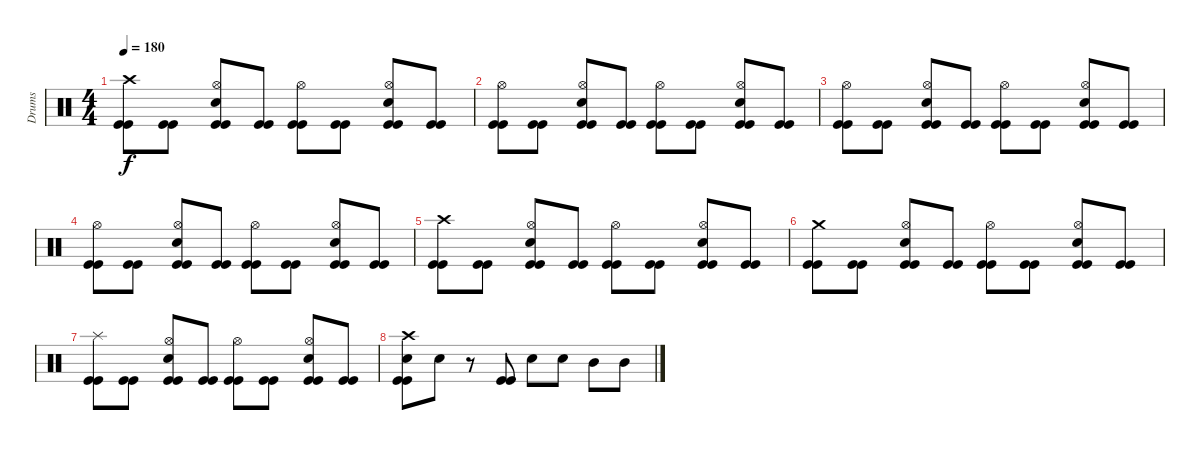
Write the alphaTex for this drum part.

\track ("Drums" "Drums") {instrument percussion}
\staff {score}
\articulation defaults
\ts (4 4)
\tempo 180
\clef neutral
\ks c
("Crash high (hit)" "Kick (hit)" "Kick (hit)").8{dy f volume 7} ("Kick (hit)" "Kick (hit)").8 ("Hi-Hat (open)" "Kick (hit)" "Kick (hit)" "Snare (hit) 2").8 ("Kick (hit)" "Kick (hit)").8 ("Hi-Hat (open)" "Kick (hit)" "Kick (hit)").8 ("Kick (hit)" "Kick (hit)").8 ("Hi-Hat (open)" "Kick (hit)" "Kick (hit)" "Snare (hit) 2").8 ("Kick (hit)" "Kick (hit)").8 |
("Hi-Hat (open)" "Kick (hit)" "Kick (hit)").8 ("Kick (hit)" "Kick (hit)").8 ("Hi-Hat (open)" "Kick (hit)" "Kick (hit)" "Snare (hit) 2").8 ("Kick (hit)" "Kick (hit)").8 ("Hi-Hat (open)" "Kick (hit)" "Kick (hit)").8 ("Kick (hit)" "Kick (hit)").8 ("Hi-Hat (open)" "Kick (hit)" "Kick (hit)" "Snare (hit) 2").8 ("Kick (hit)" "Kick (hit)").8 |
("Hi-Hat (open)" "Kick (hit)" "Kick (hit)").8{volume 5} ("Kick (hit)" "Kick (hit)").8 ("Hi-Hat (open)" "Kick (hit)" "Kick (hit)" "Snare (hit) 2").8 ("Kick (hit)" "Kick (hit)").8 ("Hi-Hat (open)" "Kick (hit)" "Kick (hit)").8 ("Kick (hit)" "Kick (hit)").8 ("Hi-Hat (open)" "Kick (hit)" "Kick (hit)" "Snare (hit) 2").8 ("Kick (hit)" "Kick (hit)").8 |
("Hi-Hat (open)" "Kick (hit)" "Kick (hit)").8 ("Kick (hit)" "Kick (hit)").8 ("Hi-Hat (open)" "Kick (hit)" "Kick (hit)" "Snare (hit) 2").8 ("Kick (hit)" "Kick (hit)").8 ("Hi-Hat (open)" "Kick (hit)" "Kick (hit)").8 ("Kick (hit)" "Kick (hit)").8 ("Hi-Hat (open)" "Kick (hit)" "Kick (hit)" "Snare (hit) 2").8 ("Kick (hit)" "Kick (hit)").8 |
("Crash high (hit)" "Kick (hit)" "Kick (hit)").8{volume 3} ("Kick (hit)" "Kick (hit)").8 ("Hi-Hat (open)" "Kick (hit)" "Kick (hit)" "Snare (hit) 2").8 ("Kick (hit)" "Kick (hit)").8 ("Hi-Hat (open)" "Kick (hit)" "Kick (hit)").8 ("Kick (hit)" "Kick (hit)").8 ("Hi-Hat (open)" "Kick (hit)" "Kick (hit)" "Snare (hit) 2").8 ("Kick (hit)" "Kick (hit)").8 |
("Crash medium (hit)" "Kick (hit)" "Kick (hit)").8 ("Kick (hit)" "Kick (hit)").8 ("Hi-Hat (open)" "Kick (hit)" "Kick (hit)" "Snare (hit) 2").8 ("Kick (hit)" "Kick (hit)").8 ("Hi-Hat (open)" "Kick (hit)" "Kick (hit)").8 ("Kick (hit)" "Kick (hit)").8 ("Hi-Hat (open)" "Kick (hit)" "Kick (hit)" "Snare (hit) 2").8 ("Kick (hit)" "Kick (hit)").8 |
("Splash (hit)" "Kick (hit)" "Kick (hit)").8{volume 0} ("Kick (hit)" "Kick (hit)").8 ("Hi-Hat (open)" "Kick (hit)" "Kick (hit)" "Snare (hit) 2").8 ("Kick (hit)" "Kick (hit)").8 ("Hi-Hat (open)" "Kick (hit)" "Kick (hit)").8 ("Kick (hit)" "Kick (hit)").8 ("Hi-Hat (open)" "Kick (hit)" "Kick (hit)" "Snare (hit) 2").8 ("Kick (hit)" "Kick (hit)").8 |
("Crash high (hit)" "Snare (hit) 2" "Kick (hit)" "Kick (hit)").8 "Snare (hit) 2".8 r.8 ("Kick (hit)" "Kick (hit)").8 "Snare (hit) 2".8 "Snare (hit) 2".8 "Mid Tom (hit)".8 "Mid Tom (hit)".8
